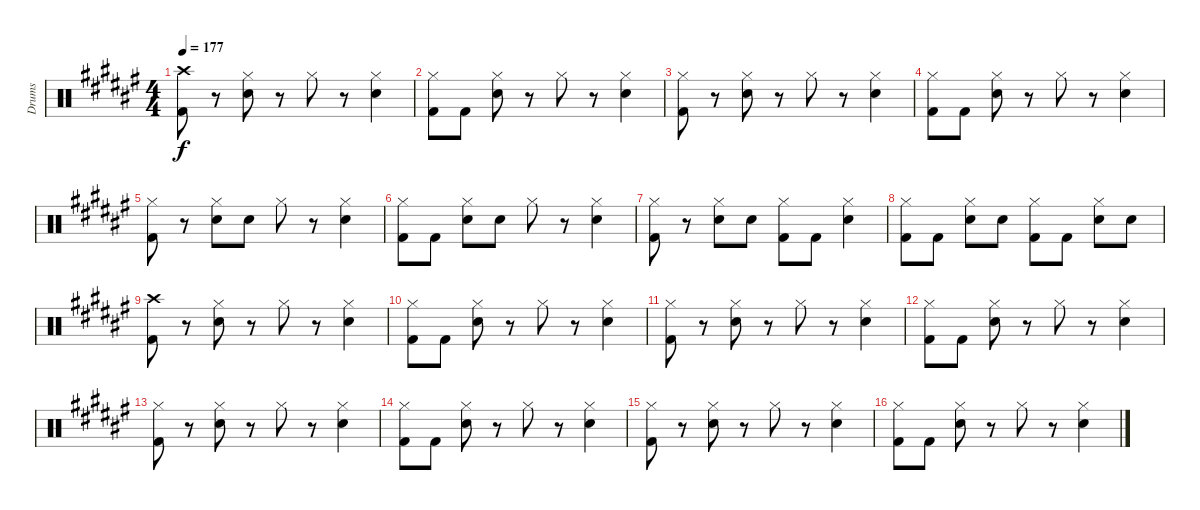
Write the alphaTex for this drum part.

\track ("Drums" "Drums") {instrument percussion}
\staff {score}
\articulation defaults
\ts (4 4)
\tempo 177
\clef neutral
\ks d#minor
("Crash high (hit)" "Kick (hit) 2").8{dy f} r.8 ("Hi-Hat (closed)" "Snare (hit) 2").8 r.8 "Hi-Hat (closed)".8 r.8 ("Hi-Hat (closed)" "Snare (hit) 2").4 |
("Hi-Hat (closed)" "Kick (hit) 2").8 "Kick (hit) 2".8 ("Hi-Hat (closed)" "Snare (hit) 2").8 r.8 "Hi-Hat (closed)".8 r.8 ("Hi-Hat (closed)" "Snare (hit) 2").4 |
("Hi-Hat (closed)" "Kick (hit) 2").8 r.8 ("Hi-Hat (closed)" "Snare (hit) 2").8 r.8 "Hi-Hat (closed)".8 r.8 ("Hi-Hat (closed)" "Snare (hit) 2").4 |
("Hi-Hat (closed)" "Kick (hit) 2").8 "Kick (hit) 2".8 ("Hi-Hat (closed)" "Snare (hit) 2").8 r.8 "Hi-Hat (closed)".8 r.8 ("Hi-Hat (closed)" "Snare (hit) 2").4 |
("Hi-Hat (closed)" "Kick (hit) 2").8 r.8 ("Hi-Hat (closed)" "Snare (hit) 2").8 "Snare (hit) 2".8 "Hi-Hat (closed)".8 r.8 ("Hi-Hat (closed)" "Snare (hit) 2").4 |
("Hi-Hat (closed)" "Kick (hit) 2").8 "Kick (hit) 2".8 ("Hi-Hat (closed)" "Snare (hit) 2").8 "Snare (hit) 2".8 "Hi-Hat (closed)".8 r.8 ("Hi-Hat (closed)" "Snare (hit) 2").4 |
("Hi-Hat (closed)" "Kick (hit) 2").8 r.8 ("Hi-Hat (closed)" "Snare (hit) 2").8 "Snare (hit) 2".8 ("Hi-Hat (closed)" "Kick (hit) 2").8 "Kick (hit) 2".8 ("Hi-Hat (closed)" "Snare (hit) 2").4 |
("Hi-Hat (closed)" "Kick (hit) 2").8 "Kick (hit) 2".8 ("Hi-Hat (closed)" "Snare (hit) 2").8 "Snare (hit) 2".8 ("Hi-Hat (closed)" "Kick (hit) 2").8 "Kick (hit) 2".8 ("Hi-Hat (closed)" "Snare (hit) 2").8 "Snare (hit) 2".8 |
("Crash high (hit)" "Kick (hit) 2").8 r.8 ("Hi-Hat (closed)" "Snare (hit) 2").8 r.8 "Hi-Hat (closed)".8 r.8 ("Hi-Hat (closed)" "Snare (hit) 2").4 |
("Hi-Hat (closed)" "Kick (hit) 2").8 "Kick (hit) 2".8 ("Hi-Hat (closed)" "Snare (hit) 2").8 r.8 "Hi-Hat (closed)".8 r.8 ("Hi-Hat (closed)" "Snare (hit) 2").4 |
("Hi-Hat (closed)" "Kick (hit) 2").8 r.8 ("Hi-Hat (closed)" "Snare (hit) 2").8 r.8 "Hi-Hat (closed)".8 r.8 ("Hi-Hat (closed)" "Snare (hit) 2").4 |
("Hi-Hat (closed)" "Kick (hit) 2").8 "Kick (hit) 2".8 ("Hi-Hat (closed)" "Snare (hit) 2").8 r.8 "Hi-Hat (closed)".8 r.8 ("Hi-Hat (closed)" "Snare (hit) 2").4 |
("Hi-Hat (closed)" "Kick (hit) 2").8 r.8 ("Hi-Hat (closed)" "Snare (hit) 2").8 r.8 "Hi-Hat (closed)".8 r.8 ("Hi-Hat (closed)" "Snare (hit) 2").4 |
("Hi-Hat (closed)" "Kick (hit) 2").8 "Kick (hit) 2".8 ("Hi-Hat (closed)" "Snare (hit) 2").8 r.8 "Hi-Hat (closed)".8 r.8 ("Hi-Hat (closed)" "Snare (hit) 2").4 |
("Hi-Hat (closed)" "Kick (hit) 2").8 r.8 ("Hi-Hat (closed)" "Snare (hit) 2").8 r.8 "Hi-Hat (closed)".8 r.8 ("Hi-Hat (closed)" "Snare (hit) 2").4 |
("Hi-Hat (closed)" "Kick (hit) 2").8 "Kick (hit) 2".8 ("Hi-Hat (closed)" "Snare (hit) 2").8 r.8 "Hi-Hat (closed)".8 r.8 ("Hi-Hat (closed)" "Snare (hit) 2").4
